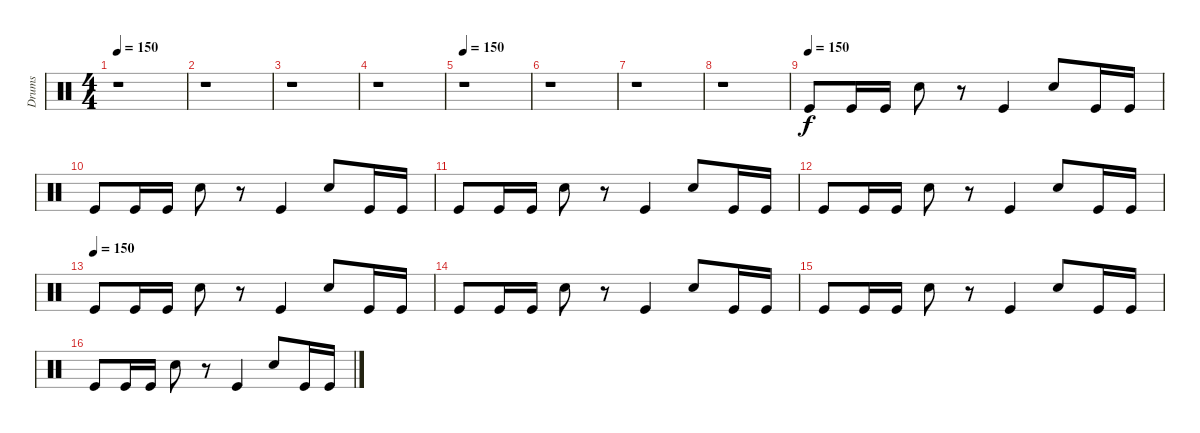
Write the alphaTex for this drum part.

\track ("Drums" "Drums") {instrument percussion}
\staff {score}
\articulation defaults
\ts (4 4)
\tempo 150
\clef neutral
\ks c
r.1{dy f} |
r.1 |
r.1 |
r.1 |
\tempo 150
r.1 |
r.1 |
r.1 |
r.1 |
\tempo (150)
"Kick (hit)".8 "Kick (hit)".16 "Kick (hit)".16 "Snare (hit) 2".8 r.8 "Kick (hit)".4 "Snare (hit) 2".8 "Kick (hit)".16 "Kick (hit)".16 |
"Kick (hit)".8 "Kick (hit)".16 "Kick (hit)".16 "Snare (hit) 2".8 r.8 "Kick (hit)".4 "Snare (hit) 2".8 "Kick (hit)".16 "Kick (hit)".16 |
"Kick (hit)".8 "Kick (hit)".16 "Kick (hit)".16 "Snare (hit) 2".8 r.8 "Kick (hit)".4 "Snare (hit) 2".8 "Kick (hit)".16 "Kick (hit)".16 |
"Kick (hit)".8 "Kick (hit)".16 "Kick (hit)".16 "Snare (hit) 2".8 r.8 "Kick (hit)".4 "Snare (hit) 2".8 "Kick (hit)".16 "Kick (hit)".16 |
\tempo (150)
"Kick (hit)".8 "Kick (hit)".16 "Kick (hit)".16 "Snare (hit) 2".8 r.8 "Kick (hit)".4 "Snare (hit) 2".8 "Kick (hit)".16 "Kick (hit)".16 |
"Kick (hit)".8 "Kick (hit)".16 "Kick (hit)".16 "Snare (hit) 2".8 r.8 "Kick (hit)".4 "Snare (hit) 2".8 "Kick (hit)".16 "Kick (hit)".16 |
"Kick (hit)".8 "Kick (hit)".16 "Kick (hit)".16 "Snare (hit) 2".8 r.8 "Kick (hit)".4 "Snare (hit) 2".8 "Kick (hit)".16 "Kick (hit)".16 |
"Kick (hit)".8 "Kick (hit)".16 "Kick (hit)".16 "Snare (hit) 2".8 r.8 "Kick (hit)".4 "Snare (hit) 2".8 "Kick (hit)".16 "Kick (hit)".16
